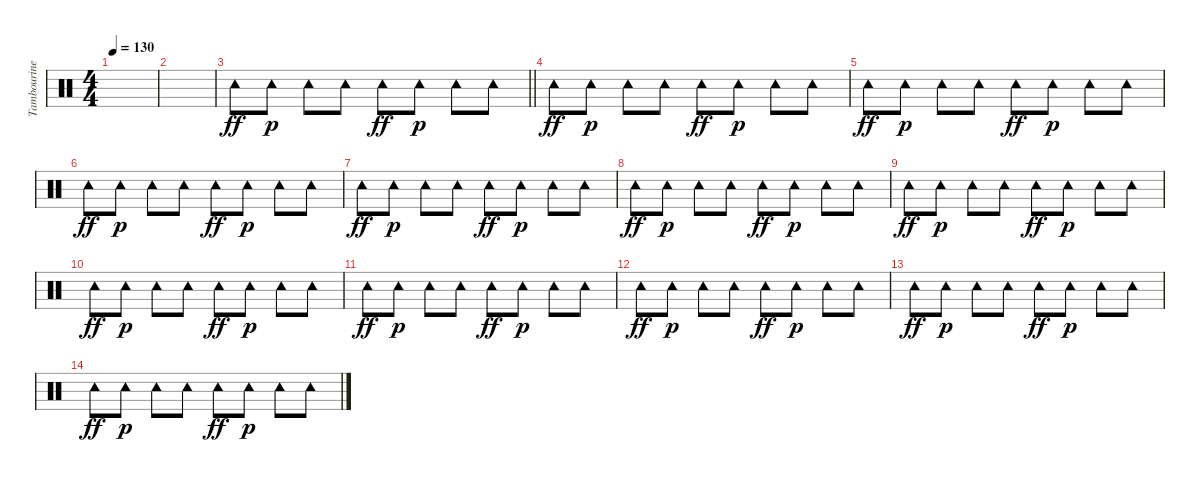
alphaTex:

\track ("Tambourine" "Tambourine") {instrument percussion}
\staff {score}
\articulation defaults
\ts (4 4)
\tempo 130
\clef neutral
\ks c
|
|
\barLineRight lightlight "Tambourine (hit)".8{dy ff} "Tambourine (hit)".8{dy p} "Tambourine (hit)".8 "Tambourine (hit)".8 "Tambourine (hit)".8{dy ff} "Tambourine (hit)".8{dy p} "Tambourine (hit)".8 "Tambourine (hit)".8
|
"Tambourine (hit)".8{dy ff} "Tambourine (hit)".8{dy p} "Tambourine (hit)".8 "Tambourine (hit)".8 "Tambourine (hit)".8{dy ff} "Tambourine (hit)".8{dy p} "Tambourine (hit)".8 "Tambourine (hit)".8 |
"Tambourine (hit)".8{dy ff} "Tambourine (hit)".8{dy p} "Tambourine (hit)".8 "Tambourine (hit)".8 "Tambourine (hit)".8{dy ff} "Tambourine (hit)".8{dy p} "Tambourine (hit)".8 "Tambourine (hit)".8 |
"Tambourine (hit)".8{dy ff} "Tambourine (hit)".8{dy p} "Tambourine (hit)".8 "Tambourine (hit)".8 "Tambourine (hit)".8{dy ff} "Tambourine (hit)".8{dy p} "Tambourine (hit)".8 "Tambourine (hit)".8 |
"Tambourine (hit)".8{dy ff} "Tambourine (hit)".8{dy p} "Tambourine (hit)".8 "Tambourine (hit)".8 "Tambourine (hit)".8{dy ff} "Tambourine (hit)".8{dy p} "Tambourine (hit)".8 "Tambourine (hit)".8 |
"Tambourine (hit)".8{dy ff} "Tambourine (hit)".8{dy p} "Tambourine (hit)".8 "Tambourine (hit)".8 "Tambourine (hit)".8{dy ff} "Tambourine (hit)".8{dy p} "Tambourine (hit)".8 "Tambourine (hit)".8 |
"Tambourine (hit)".8{dy ff} "Tambourine (hit)".8{dy p} "Tambourine (hit)".8 "Tambourine (hit)".8 "Tambourine (hit)".8{dy ff} "Tambourine (hit)".8{dy p} "Tambourine (hit)".8 "Tambourine (hit)".8 |
"Tambourine (hit)".8{dy ff} "Tambourine (hit)".8{dy p} "Tambourine (hit)".8 "Tambourine (hit)".8 "Tambourine (hit)".8{dy ff} "Tambourine (hit)".8{dy p} "Tambourine (hit)".8 "Tambourine (hit)".8 |
"Tambourine (hit)".8{dy ff} "Tambourine (hit)".8{dy p} "Tambourine (hit)".8 "Tambourine (hit)".8 "Tambourine (hit)".8{dy ff} "Tambourine (hit)".8{dy p} "Tambourine (hit)".8 "Tambourine (hit)".8 |
"Tambourine (hit)".8{dy ff} "Tambourine (hit)".8{dy p} "Tambourine (hit)".8 "Tambourine (hit)".8 "Tambourine (hit)".8{dy ff} "Tambourine (hit)".8{dy p} "Tambourine (hit)".8 "Tambourine (hit)".8 |
"Tambourine (hit)".8{dy ff} "Tambourine (hit)".8{dy p} "Tambourine (hit)".8 "Tambourine (hit)".8 "Tambourine (hit)".8{dy ff} "Tambourine (hit)".8{dy p} "Tambourine (hit)".8 "Tambourine (hit)".8 |
"Tambourine (hit)".8{dy ff} "Tambourine (hit)".8{dy p} "Tambourine (hit)".8 "Tambourine (hit)".8 "Tambourine (hit)".8{dy ff} "Tambourine (hit)".8{dy p} "Tambourine (hit)".8 "Tambourine (hit)".8
